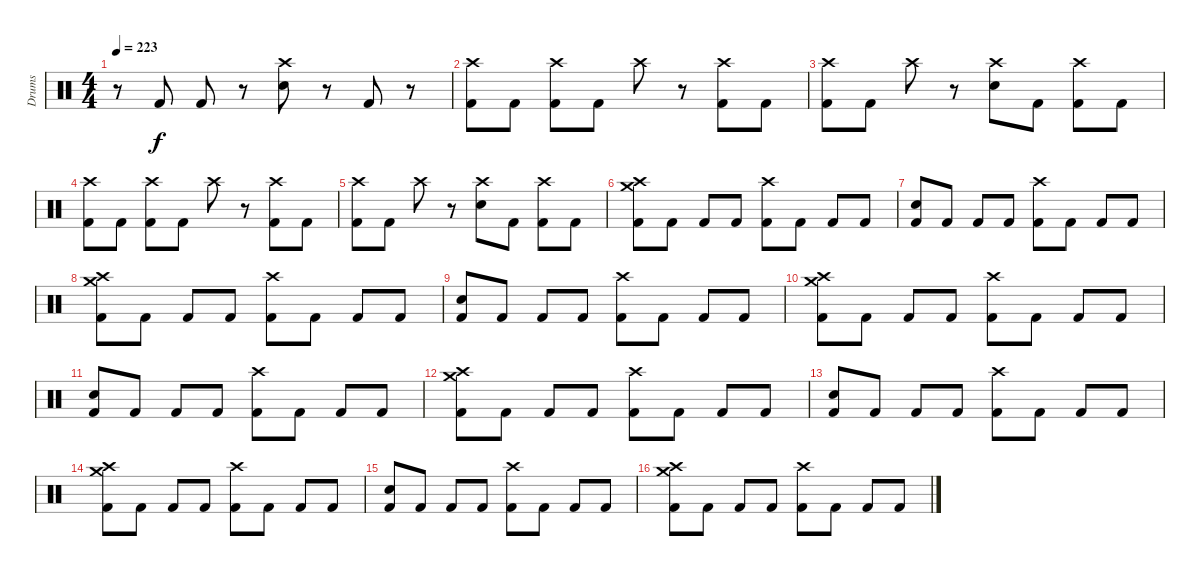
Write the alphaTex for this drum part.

\track ("Drums" "Drums") {instrument percussion bank 177}
\staff {score}
\articulation defaults
\ts (4 4)
\tempo 223
\clef neutral
\ks c
r.8{dy f} "Kick (hit) 2".8 "Kick (hit) 2".8 r.8 ("Crash high (hit)" "Electric Snare (hit)").8 r.8 "Kick (hit) 2".8 r.8 |
("Crash high (hit)" "Kick (hit) 2").8 "Kick (hit) 2".8 ("Crash high (hit)" "Kick (hit) 2").8 "Kick (hit) 2".8 "Crash high (hit)".8 r.8 ("Crash high (hit)" "Kick (hit) 2").8 "Kick (hit) 2".8 |
("Crash high (hit)" "Kick (hit) 2").8 "Kick (hit) 2".8 "Crash high (hit)".8 r.8 ("Crash high (hit)" "Electric Snare (hit)").8 "Kick (hit) 2".8 ("Crash high (hit)" "Kick (hit) 2").8 "Kick (hit) 2".8 |
("Crash high (hit)" "Kick (hit) 2").8 "Kick (hit) 2".8 ("Crash high (hit)" "Kick (hit) 2").8 "Kick (hit) 2".8 "Crash high (hit)".8 r.8 ("Crash high (hit)" "Kick (hit) 2").8 "Kick (hit) 2".8 |
("Crash high (hit)" "Kick (hit) 2").8 "Kick (hit) 2".8 "Crash high (hit)".8 r.8 ("Crash high (hit)" "Electric Snare (hit)").8 "Kick (hit) 2".8 ("Crash high (hit)" "Kick (hit) 2").8 "Kick (hit) 2".8 |
("Crash high (hit)" "Crash medium (hit)" "Kick (hit) 2").8 "Kick (hit) 2".8 "Kick (hit) 2".8 "Kick (hit) 2".8 ("Crash high (hit)" "Kick (hit) 2").8 "Kick (hit) 2".8 "Kick (hit) 2".8 "Kick (hit) 2".8 |
("Electric Snare (hit)" "Kick (hit) 2").8 "Kick (hit) 2".8 "Kick (hit) 2".8 "Kick (hit) 2".8 ("Crash high (hit)" "Kick (hit) 2").8 "Kick (hit) 2".8 "Kick (hit) 2".8 "Kick (hit) 2".8 |
("Crash high (hit)" "Crash medium (hit)" "Kick (hit) 2").8 "Kick (hit) 2".8 "Kick (hit) 2".8 "Kick (hit) 2".8 ("Crash high (hit)" "Kick (hit) 2").8 "Kick (hit) 2".8 "Kick (hit) 2".8 "Kick (hit) 2".8 |
("Electric Snare (hit)" "Kick (hit) 2").8 "Kick (hit) 2".8 "Kick (hit) 2".8 "Kick (hit) 2".8 ("Crash high (hit)" "Kick (hit) 2").8 "Kick (hit) 2".8 "Kick (hit) 2".8 "Kick (hit) 2".8 |
("Crash high (hit)" "Crash medium (hit)" "Kick (hit) 2").8 "Kick (hit) 2".8 "Kick (hit) 2".8 "Kick (hit) 2".8 ("Crash high (hit)" "Kick (hit) 2").8 "Kick (hit) 2".8 "Kick (hit) 2".8 "Kick (hit) 2".8 |
("Electric Snare (hit)" "Kick (hit) 2").8 "Kick (hit) 2".8 "Kick (hit) 2".8 "Kick (hit) 2".8 ("Crash high (hit)" "Kick (hit) 2").8 "Kick (hit) 2".8 "Kick (hit) 2".8 "Kick (hit) 2".8 |
("Crash high (hit)" "Crash medium (hit)" "Kick (hit) 2").8 "Kick (hit) 2".8 "Kick (hit) 2".8 "Kick (hit) 2".8 ("Crash high (hit)" "Kick (hit) 2").8 "Kick (hit) 2".8 "Kick (hit) 2".8 "Kick (hit) 2".8 |
("Electric Snare (hit)" "Kick (hit) 2").8 "Kick (hit) 2".8 "Kick (hit) 2".8 "Kick (hit) 2".8 ("Crash high (hit)" "Kick (hit) 2").8 "Kick (hit) 2".8 "Kick (hit) 2".8 "Kick (hit) 2".8 |
("Crash high (hit)" "Crash medium (hit)" "Kick (hit) 2").8 "Kick (hit) 2".8 "Kick (hit) 2".8 "Kick (hit) 2".8 ("Crash high (hit)" "Kick (hit) 2").8 "Kick (hit) 2".8 "Kick (hit) 2".8 "Kick (hit) 2".8 |
("Electric Snare (hit)" "Kick (hit) 2").8 "Kick (hit) 2".8 "Kick (hit) 2".8 "Kick (hit) 2".8 ("Crash high (hit)" "Kick (hit) 2").8 "Kick (hit) 2".8 "Kick (hit) 2".8 "Kick (hit) 2".8 |
("Crash high (hit)" "Crash medium (hit)" "Kick (hit) 2").8 "Kick (hit) 2".8 "Kick (hit) 2".8 "Kick (hit) 2".8 ("Crash high (hit)" "Kick (hit) 2").8 "Kick (hit) 2".8 "Kick (hit) 2".8 "Kick (hit) 2".8
